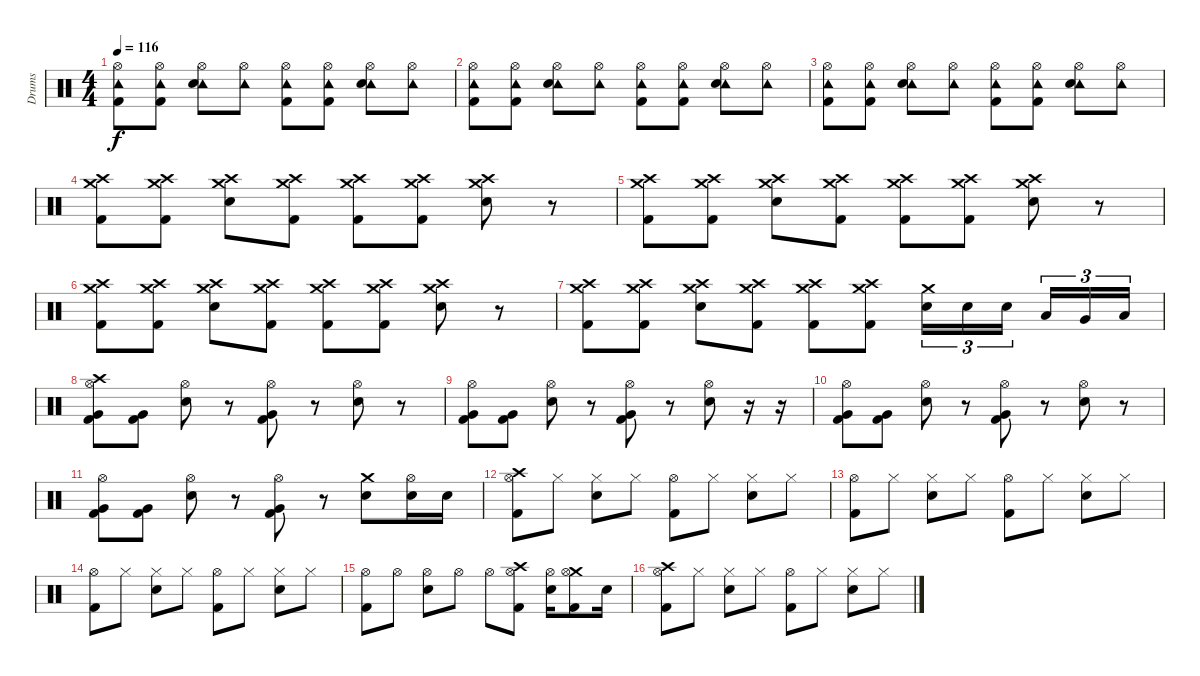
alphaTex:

\track ("Drums" "Drums") {instrument percussion}
\staff {score}
\articulation defaults
\ts (4 4)
\tempo 116
\clef neutral
\ks c
("Hi-Hat (open)" "Tambourine (hit)" "Kick (hit) 2").8{dy f} ("Hi-Hat (open)" "Tambourine (hit)" "Kick (hit) 2").8 ("Hi-Hat (open)" "Tambourine (hit)" "Snare (hit) 2").8 ("Hi-Hat (open)" "Tambourine (hit)").8 ("Hi-Hat (open)" "Tambourine (hit)" "Kick (hit) 2").8 ("Hi-Hat (open)" "Tambourine (hit)" "Kick (hit) 2").8 ("Hi-Hat (open)" "Tambourine (hit)" "Snare (hit) 2").8 ("Hi-Hat (open)" "Tambourine (hit)").8 |
("Hi-Hat (open)" "Tambourine (hit)" "Kick (hit) 2").8 ("Hi-Hat (open)" "Tambourine (hit)" "Kick (hit) 2").8 ("Hi-Hat (open)" "Tambourine (hit)" "Snare (hit) 2").8 ("Hi-Hat (open)" "Tambourine (hit)").8 ("Hi-Hat (open)" "Tambourine (hit)" "Kick (hit) 2").8 ("Hi-Hat (open)" "Tambourine (hit)" "Kick (hit) 2").8 ("Hi-Hat (open)" "Tambourine (hit)" "Snare (hit) 2").8 ("Hi-Hat (open)" "Tambourine (hit)").8 |
("Hi-Hat (open)" "Tambourine (hit)" "Kick (hit) 2").8 ("Hi-Hat (open)" "Tambourine (hit)" "Kick (hit) 2").8 ("Hi-Hat (open)" "Tambourine (hit)" "Snare (hit) 2").8 ("Hi-Hat (open)" "Tambourine (hit)").8 ("Hi-Hat (open)" "Tambourine (hit)" "Kick (hit) 2").8 ("Hi-Hat (open)" "Tambourine (hit)" "Kick (hit) 2").8 ("Hi-Hat (open)" "Tambourine (hit)" "Snare (hit) 2").8 ("Hi-Hat (open)" "Tambourine (hit)").8 |
("Crash high (hit)" "Crash medium (hit)" "Kick (hit) 2").8 ("Crash high (hit)" "Crash medium (hit)" "Kick (hit) 2").8 ("Crash high (hit)" "Crash medium (hit)" "Snare (hit) 2").8 ("Crash high (hit)" "Crash medium (hit)" "Kick (hit) 2").8 ("Crash high (hit)" "Crash medium (hit)" "Kick (hit) 2").8 ("Crash high (hit)" "Crash medium (hit)" "Kick (hit) 2").8 ("Crash high (hit)" "Crash medium (hit)" "Snare (hit) 2").8 r.8 |
("Crash high (hit)" "Crash medium (hit)" "Kick (hit) 2").8 ("Crash high (hit)" "Crash medium (hit)" "Kick (hit) 2").8 ("Crash high (hit)" "Crash medium (hit)" "Snare (hit) 2").8 ("Crash high (hit)" "Crash medium (hit)" "Kick (hit) 2").8 ("Crash high (hit)" "Crash medium (hit)" "Kick (hit) 2").8 ("Crash high (hit)" "Crash medium (hit)" "Kick (hit) 2").8 ("Crash high (hit)" "Crash medium (hit)" "Snare (hit) 2").8 r.8 |
("Crash high (hit)" "Crash medium (hit)" "Kick (hit) 2").8 ("Crash high (hit)" "Crash medium (hit)" "Kick (hit) 2").8 ("Crash high (hit)" "Crash medium (hit)" "Snare (hit) 2").8 ("Crash high (hit)" "Crash medium (hit)" "Kick (hit) 2").8 ("Crash high (hit)" "Crash medium (hit)" "Kick (hit) 2").8 ("Crash high (hit)" "Crash medium (hit)" "Kick (hit) 2").8 ("Crash high (hit)" "Crash medium (hit)" "Snare (hit) 2").8 r.8 |
("Crash high (hit)" "Crash medium (hit)" "Kick (hit) 2").8 ("Crash high (hit)" "Crash medium (hit)" "Kick (hit) 2").8 ("Crash high (hit)" "Crash medium (hit)" "Snare (hit) 2").8 ("Crash high (hit)" "Crash medium (hit)" "Kick (hit) 2").8 ("Crash high (hit)" "Crash medium (hit)" "Kick (hit) 2").8 ("Crash high (hit)" "Crash medium (hit)" "Kick (hit) 2").8 ("Crash medium (hit)" "Snare (hit) 2").16{tu (3 2)} "Snare (hit) 2".16{tu (3 2)} "Snare (hit) 2".16{tu (3 2)} "Low Tom (hit)".16{tu (3 2)} "Very Low Tom (hit)".16{tu (3 2)} "Low Floor Tom (hit)".16{tu (3 2)} |
("Crash high (hit)" "Hi-Hat (open)" "Very Low Tom (hit)" "Kick (hit) 2").8 ("Very Low Tom (hit)" "Kick (hit) 2").8 ("Hi-Hat (open)" "Snare (hit) 2").8 r.8 ("Hi-Hat (open)" "Very Low Tom (hit)" "Kick (hit) 2").8 r.8 ("Hi-Hat (open)" "Snare (hit) 2").8 r.8 |
("Hi-Hat (open)" "Very Low Tom (hit)" "Kick (hit) 2").8 ("Very Low Tom (hit)" "Kick (hit) 2").8 ("Hi-Hat (open)" "Snare (hit) 2").8 r.8 ("Hi-Hat (open)" "Very Low Tom (hit)" "Kick (hit) 2").8 r.8 ("Hi-Hat (open)" "Snare (hit) 2").8 r.16 r.16 |
("Hi-Hat (open)" "Very Low Tom (hit)" "Kick (hit) 2").8 ("Very Low Tom (hit)" "Kick (hit) 2").8 ("Hi-Hat (open)" "Snare (hit) 2").8 r.8 ("Hi-Hat (open)" "Very Low Tom (hit)" "Kick (hit) 2").8 r.8 ("Hi-Hat (open)" "Snare (hit) 2").8 r.8 |
("Hi-Hat (open)" "Very Low Tom (hit)" "Kick (hit) 2").8 ("Very Low Tom (hit)" "Kick (hit) 2").8 ("Hi-Hat (open)" "Snare (hit) 2").8 r.8 ("Hi-Hat (open)" "Very Low Tom (hit)" "Kick (hit) 2").8 r.8 ("Crash medium (hit)" "Snare (hit) 2").8 ("Hi-Hat (open)" "Snare (hit) 2").16 "Snare (hit) 2".16 |
("Crash high (hit)" "Hi-Hat (open)" "Kick (hit) 2").8 "Hi-Hat (closed)".8 ("Hi-Hat (closed)" "Snare (hit) 2").8 "Hi-Hat (closed)".8 ("Hi-Hat (open)" "Kick (hit) 2").8 "Hi-Hat (closed)".8 ("Hi-Hat (closed)" "Snare (hit) 2").8 "Hi-Hat (closed)".8 |
("Hi-Hat (open)" "Kick (hit) 2").8 "Hi-Hat (closed)".8 ("Hi-Hat (closed)" "Snare (hit) 2").8 "Hi-Hat (closed)".8 ("Hi-Hat (open)" "Kick (hit) 2").8 "Hi-Hat (closed)".8 ("Hi-Hat (closed)" "Snare (hit) 2").8 "Hi-Hat (closed)".8 |
("Hi-Hat (open)" "Kick (hit) 2").8 "Hi-Hat (closed)".8 ("Hi-Hat (closed)" "Snare (hit) 2").8 "Hi-Hat (closed)".8 ("Hi-Hat (open)" "Kick (hit) 2").8 "Hi-Hat (closed)".8 ("Hi-Hat (closed)" "Snare (hit) 2").8 "Hi-Hat (closed)".8 |
("Hi-Hat (open)" "Kick (hit) 2").8 "Hi-Hat (open)".8 ("Hi-Hat (open)" "Snare (hit) 2").8 "Hi-Hat (open)".8 "Hi-Hat (open)".8 ("Crash high (hit)" "Hi-Hat (open)" "Kick (hit) 2").8 ("Hi-Hat (open)" "Snare (hit) 2").16 ("Crash medium (hit)" "Hi-Hat (open)" "Kick (hit) 2").8 "Snare (hit)"{x}.16 |
("Crash high (hit)" "Hi-Hat (open)" "Kick (hit) 2").8 "Hi-Hat (closed)".8 ("Hi-Hat (closed)" "Snare (hit) 2").8 "Hi-Hat (closed)".8 ("Hi-Hat (open)" "Kick (hit) 2").8 "Hi-Hat (closed)".8 ("Hi-Hat (closed)" "Snare (hit) 2").8 "Hi-Hat (closed)".8
